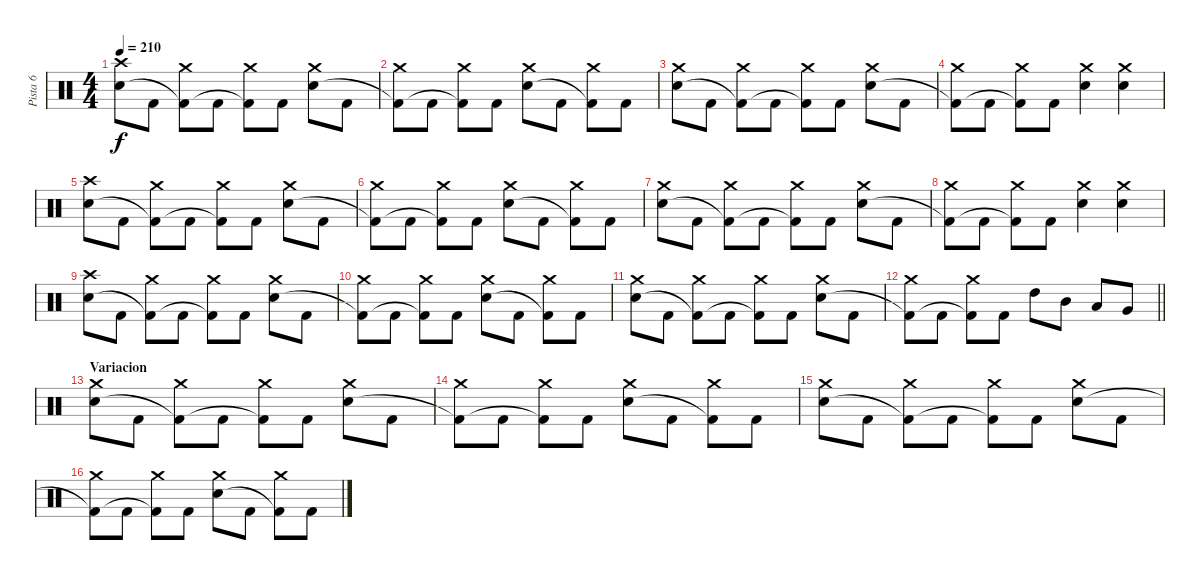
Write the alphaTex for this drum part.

\track ("Pista 6" "Pista 6") {instrument percussion}
\staff {score}
\articulation defaults
\ts (4 4)
\tempo 210
\clef neutral
\ks c
("Crash high (hit)" "Electric Snare (hit)").8{dy f} "Kick (hit) 2".8 ("Crash medium (hit)" "Kick (hit) 2"{t}).8 "Kick (hit) 2".8 ("Crash medium (hit)" "Kick (hit) 2"{t}).8 "Kick (hit) 2".8 ("Crash medium (hit)" "Electric Snare (hit)").8 "Kick (hit) 2".8 |
("Crash medium (hit)" "Kick (hit) 2"{t}).8 "Kick (hit) 2".8 ("Crash medium (hit)" "Kick (hit) 2"{t}).8 "Kick (hit) 2".8 ("Crash medium (hit)" "Electric Snare (hit)").8 "Kick (hit) 2".8 ("Crash medium (hit)" "Kick (hit) 2"{t}).8 "Kick (hit) 2".8 |
("Crash medium (hit)" "Electric Snare (hit)").8 "Kick (hit) 2".8 ("Crash medium (hit)" "Kick (hit) 2"{t}).8 "Kick (hit) 2".8 ("Crash medium (hit)" "Kick (hit) 2"{t}).8 "Kick (hit) 2".8 ("Crash medium (hit)" "Electric Snare (hit)").8 "Kick (hit) 2".8 |
("Crash medium (hit)" "Kick (hit) 2"{t}).8 "Kick (hit) 2".8 ("Crash medium (hit)" "Kick (hit) 2"{t}).8 "Kick (hit) 2".8 ("Crash medium (hit)" "Electric Snare (hit)").4 ("Crash medium (hit)" "Electric Snare (hit)").4 |
("Crash high (hit)" "Electric Snare (hit)").8 "Kick (hit) 2".8 ("Crash medium (hit)" "Kick (hit) 2"{t}).8 "Kick (hit) 2".8 ("Crash medium (hit)" "Kick (hit) 2"{t}).8 "Kick (hit) 2".8 ("Crash medium (hit)" "Electric Snare (hit)").8 "Kick (hit) 2".8 |
("Crash medium (hit)" "Kick (hit) 2"{t}).8 "Kick (hit) 2".8 ("Crash medium (hit)" "Kick (hit) 2"{t}).8 "Kick (hit) 2".8 ("Crash medium (hit)" "Electric Snare (hit)").8 "Kick (hit) 2".8 ("Crash medium (hit)" "Kick (hit) 2"{t}).8 "Kick (hit) 2".8 |
("Crash medium (hit)" "Electric Snare (hit)").8 "Kick (hit) 2".8 ("Crash medium (hit)" "Kick (hit) 2"{t}).8 "Kick (hit) 2".8 ("Crash medium (hit)" "Kick (hit) 2"{t}).8 "Kick (hit) 2".8 ("Crash medium (hit)" "Electric Snare (hit)").8 "Kick (hit) 2".8 |
("Crash medium (hit)" "Kick (hit) 2"{t}).8 "Kick (hit) 2".8 ("Crash medium (hit)" "Kick (hit) 2"{t}).8 "Kick (hit) 2".8 ("Crash medium (hit)" "Electric Snare (hit)").4 ("Crash medium (hit)" "Electric Snare (hit)").4 |
("Crash high (hit)" "Electric Snare (hit)").8 "Kick (hit) 2".8 ("Crash medium (hit)" "Kick (hit) 2"{t}).8 "Kick (hit) 2".8 ("Crash medium (hit)" "Kick (hit) 2"{t}).8 "Kick (hit) 2".8 ("Crash medium (hit)" "Electric Snare (hit)").8 "Kick (hit) 2".8 |
("Crash medium (hit)" "Kick (hit) 2"{t}).8 "Kick (hit) 2".8 ("Crash medium (hit)" "Kick (hit) 2"{t}).8 "Kick (hit) 2".8 ("Crash medium (hit)" "Electric Snare (hit)").8 "Kick (hit) 2".8 ("Crash medium (hit)" "Kick (hit) 2"{t}).8 "Kick (hit) 2".8 |
("Crash medium (hit)" "Electric Snare (hit)").8 "Kick (hit) 2".8 ("Crash medium (hit)" "Kick (hit) 2"{t}).8 "Kick (hit) 2".8 ("Crash medium (hit)" "Kick (hit) 2"{t}).8 "Kick (hit) 2".8 ("Crash medium (hit)" "Electric Snare (hit)").8 "Kick (hit) 2".8 |
\barLineRight lightlight
("Crash medium (hit)" "Kick (hit) 2"{t}).8 "Kick (hit) 2".8 ("Crash medium (hit)" "Kick (hit) 2"{t}).8 "Kick (hit) 2".8 "High Tom (hit)".8 "Mid Tom (hit)".8 "Low Tom (hit)".8 "Very Low Tom (hit)".8 |
\section ("" "Variacion")
("Crash medium (hit)" "Electric Snare (hit)").8 "Kick (hit) 2".8 ("Crash medium (hit)" "Kick (hit) 2"{t}).8 "Kick (hit) 2".8 ("Crash medium (hit)" "Kick (hit) 2"{t}).8 "Kick (hit) 2".8 ("Crash medium (hit)" "Electric Snare (hit)").8 "Kick (hit) 2".8 |
("Crash medium (hit)" "Kick (hit) 2"{t}).8 "Kick (hit) 2".8 ("Crash medium (hit)" "Kick (hit) 2"{t}).8 "Kick (hit) 2".8 ("Crash medium (hit)" "Electric Snare (hit)").8 "Kick (hit) 2".8 ("Crash medium (hit)" "Kick (hit) 2"{t}).8 "Kick (hit) 2".8 |
("Crash medium (hit)" "Electric Snare (hit)").8 "Kick (hit) 2".8 ("Crash medium (hit)" "Kick (hit) 2"{t}).8 "Kick (hit) 2".8 ("Crash medium (hit)" "Kick (hit) 2"{t}).8 "Kick (hit) 2".8 ("Crash medium (hit)" "Electric Snare (hit)").8 "Kick (hit) 2".8 |
("Crash medium (hit)" "Kick (hit) 2"{t}).8 "Kick (hit) 2".8 ("Crash medium (hit)" "Kick (hit) 2"{t}).8 "Kick (hit) 2".8 ("Crash medium (hit)" "Electric Snare (hit)").8 "Kick (hit) 2".8 ("Crash medium (hit)" "Kick (hit) 2"{t}).8 "Kick (hit) 2".8
